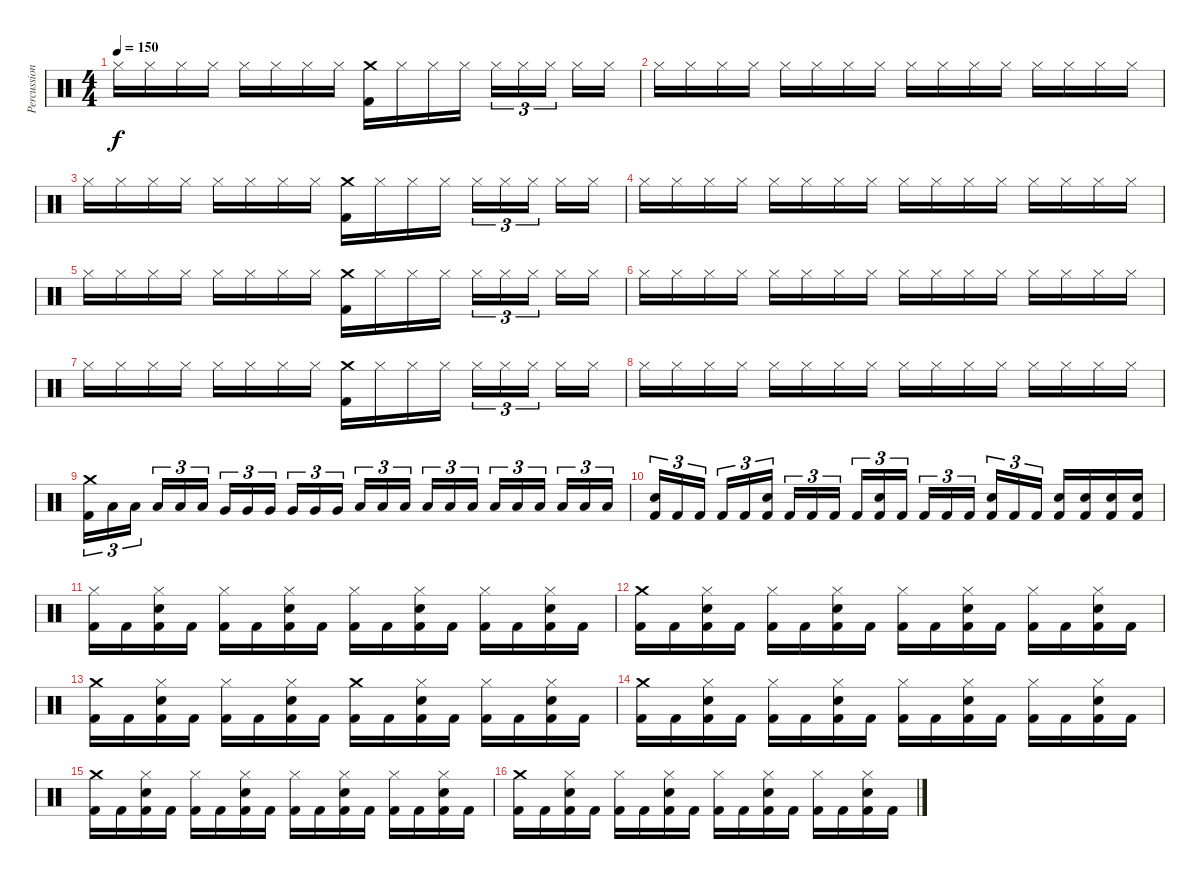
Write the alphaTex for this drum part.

\track ("Percussioni" "Percussion") {instrument percussion}
\staff {score}
\articulation defaults
\ts (4 4)
\tempo 150
\clef neutral
\ks c "Hi-Hat (closed)".16{dy f} "Hi-Hat (closed)".16 "Hi-Hat (closed)".16 "Hi-Hat (closed)".16 "Hi-Hat (closed)".16 "Hi-Hat (closed)".16 "Hi-Hat (closed)".16 "Hi-Hat (closed)".16
("Crash medium (hit)" "Kick (hit) 2").16 "Hi-Hat (closed)".16 "Hi-Hat (closed)".16 "Hi-Hat (closed)".16 "Hi-Hat (closed)".16{tu (3 2)} "Hi-Hat (closed)".16{tu (3 2)} "Hi-Hat (closed)".16{tu (3 2) beam splitsecondary} "Hi-Hat (closed)".16 "Hi-Hat (closed)".16 |
"Hi-Hat (closed)".16 "Hi-Hat (closed)".16 "Hi-Hat (closed)".16 "Hi-Hat (closed)".16 "Hi-Hat (closed)".16 "Hi-Hat (closed)".16 "Hi-Hat (closed)".16 "Hi-Hat (closed)".16 "Hi-Hat (closed)".16 "Hi-Hat (closed)".16 "Hi-Hat (closed)".16 "Hi-Hat (closed)".16 "Hi-Hat (closed)".16 "Hi-Hat (closed)".16 "Hi-Hat (closed)".16 "Hi-Hat (closed)".16 |
"Hi-Hat (closed)".16 "Hi-Hat (closed)".16 "Hi-Hat (closed)".16 "Hi-Hat (closed)".16 "Hi-Hat (closed)".16 "Hi-Hat (closed)".16 "Hi-Hat (closed)".16 "Hi-Hat (closed)".16 ("Crash medium (hit)" "Kick (hit) 2").16 "Hi-Hat (closed)".16 "Hi-Hat (closed)".16 "Hi-Hat (closed)".16 "Hi-Hat (closed)".16{tu (3 2)} "Hi-Hat (closed)".16{tu (3 2)} "Hi-Hat (closed)".16{tu (3 2) beam splitsecondary} "Hi-Hat (closed)".16 "Hi-Hat (closed)".16 |
"Hi-Hat (closed)".16 "Hi-Hat (closed)".16 "Hi-Hat (closed)".16 "Hi-Hat (closed)".16 "Hi-Hat (closed)".16 "Hi-Hat (closed)".16 "Hi-Hat (closed)".16 "Hi-Hat (closed)".16 "Hi-Hat (closed)".16 "Hi-Hat (closed)".16 "Hi-Hat (closed)".16 "Hi-Hat (closed)".16 "Hi-Hat (closed)".16 "Hi-Hat (closed)".16 "Hi-Hat (closed)".16 "Hi-Hat (closed)".16 |
"Hi-Hat (closed)".16 "Hi-Hat (closed)".16 "Hi-Hat (closed)".16 "Hi-Hat (closed)".16 "Hi-Hat (closed)".16 "Hi-Hat (closed)".16 "Hi-Hat (closed)".16 "Hi-Hat (closed)".16 ("Crash medium (hit)" "Kick (hit) 2").16 "Hi-Hat (closed)".16 "Hi-Hat (closed)".16 "Hi-Hat (closed)".16 "Hi-Hat (closed)".16{tu (3 2)} "Hi-Hat (closed)".16{tu (3 2)} "Hi-Hat (closed)".16{tu (3 2) beam splitsecondary} "Hi-Hat (closed)".16 "Hi-Hat (closed)".16 |
"Hi-Hat (closed)".16 "Hi-Hat (closed)".16 "Hi-Hat (closed)".16 "Hi-Hat (closed)".16 "Hi-Hat (closed)".16 "Hi-Hat (closed)".16 "Hi-Hat (closed)".16 "Hi-Hat (closed)".16 "Hi-Hat (closed)".16 "Hi-Hat (closed)".16 "Hi-Hat (closed)".16 "Hi-Hat (closed)".16 "Hi-Hat (closed)".16 "Hi-Hat (closed)".16 "Hi-Hat (closed)".16 "Hi-Hat (closed)".16 |
"Hi-Hat (closed)".16 "Hi-Hat (closed)".16 "Hi-Hat (closed)".16 "Hi-Hat (closed)".16 "Hi-Hat (closed)".16 "Hi-Hat (closed)".16 "Hi-Hat (closed)".16 "Hi-Hat (closed)".16 ("Crash medium (hit)" "Kick (hit) 2").16 "Hi-Hat (closed)".16 "Hi-Hat (closed)".16 "Hi-Hat (closed)".16 "Hi-Hat (closed)".16{tu (3 2)} "Hi-Hat (closed)".16{tu (3 2)} "Hi-Hat (closed)".16{tu (3 2) beam splitsecondary} "Hi-Hat (closed)".16 "Hi-Hat (closed)".16 |
"Hi-Hat (closed)".16 "Hi-Hat (closed)".16 "Hi-Hat (closed)".16 "Hi-Hat (closed)".16 "Hi-Hat (closed)".16 "Hi-Hat (closed)".16 "Hi-Hat (closed)".16 "Hi-Hat (closed)".16 "Hi-Hat (closed)".16 "Hi-Hat (closed)".16 "Hi-Hat (closed)".16 "Hi-Hat (closed)".16 "Hi-Hat (closed)".16 "Hi-Hat (closed)".16 "Hi-Hat (closed)".16 "Hi-Hat (closed)".16 |
("Crash medium (hit)" "Kick (hit) 2").16{tu (3 2)} "Low Tom (hit)".16{tu (3 2)} "Low Tom (hit)".16{tu (3 2) beam splitsecondary} "Low Tom (hit)".16{tu (3 2)} "Low Tom (hit)".16{tu (3 2)} "Low Tom (hit)".16{tu (3 2)} "Very Low Tom (hit)".16{tu (3 2)} "Very Low Tom (hit)".16{tu (3 2)} "Very Low Tom (hit)".16{tu (3 2) beam splitsecondary} "Very Low Tom (hit)".16{tu (3 2)} "Very Low Tom (hit)".16{tu (3 2)} "Very Low Tom (hit)".16{tu (3 2)} "Low Floor Tom (hit)".16{tu (3 2)} "Low Floor Tom (hit)".16{tu (3 2)} "Low Floor Tom (hit)".16{tu (3 2) beam splitsecondary} "Low Floor Tom (hit)".16{tu (3 2)} "Low Floor Tom (hit)".16{tu (3 2)} "Low Floor Tom (hit)".16{tu (3 2)} "Low Floor Tom (hit)".16{tu (3 2)} "Low Floor Tom (hit)".16{tu (3 2)} "Low Floor Tom (hit)".16{tu (3 2) beam splitsecondary} "Low Floor Tom (hit)".16{tu (3 2)} "Low Floor Tom (hit)".16{tu (3 2)} "Low Floor Tom (hit)".16{tu (3 2)} |
("Electric Snare (hit)" "Kick (hit) 2").16{tu (3 2)} "Kick (hit) 2".16{tu (3 2)} "Kick (hit) 2".16{tu (3 2) beam splitsecondary} "Kick (hit) 2".16{tu (3 2)} "Kick (hit) 2".16{tu (3 2)} ("Electric Snare (hit)" "Kick (hit) 2").16{tu (3 2)} "Kick (hit) 2".16{tu (3 2)} "Kick (hit) 2".16{tu (3 2)} "Kick (hit) 2".16{tu (3 2) beam splitsecondary} "Kick (hit) 2".16{tu (3 2)} ("Electric Snare (hit)" "Kick (hit) 2").16{tu (3 2)} "Kick (hit) 2".16{tu (3 2)} "Kick (hit) 2".16{tu (3 2)} "Kick (hit) 2".16{tu (3 2)} "Kick (hit) 2".16{tu (3 2) beam splitsecondary} ("Electric Snare (hit)" "Kick (hit) 2").16{tu (3 2)} "Kick (hit) 2".16{tu (3 2)} "Kick (hit) 2".16{tu (3 2)} ("Electric Snare (hit)" "Kick (hit) 2").16 ("Electric Snare (hit)" "Kick (hit) 2").16 ("Electric Snare (hit)" "Kick (hit) 2").16 ("Electric Snare (hit)" "Kick (hit) 2").16 |
("Hi-Hat (closed)" "Kick (hit) 2").16 "Kick (hit) 2".16 ("Hi-Hat (closed)" "Electric Snare (hit)" "Kick (hit) 2").16 "Kick (hit) 2".16 ("Hi-Hat (closed)" "Kick (hit) 2").16 "Kick (hit) 2".16 ("Hi-Hat (closed)" "Electric Snare (hit)" "Kick (hit) 2").16 "Kick (hit) 2".16 ("Hi-Hat (closed)" "Kick (hit) 2").16 "Kick (hit) 2".16 ("Hi-Hat (closed)" "Electric Snare (hit)" "Kick (hit) 2").16 "Kick (hit) 2".16 ("Hi-Hat (closed)" "Kick (hit) 2").16 "Kick (hit) 2".16 ("Hi-Hat (closed)" "Electric Snare (hit)" "Kick (hit) 2").16 "Kick (hit) 2".16 |
("Crash medium (hit)" "Kick (hit) 2").16 "Kick (hit) 2".16 ("Hi-Hat (closed)" "Electric Snare (hit)" "Kick (hit) 2").16 "Kick (hit) 2".16 ("Hi-Hat (closed)" "Kick (hit) 2").16 "Kick (hit) 2".16 ("Hi-Hat (closed)" "Electric Snare (hit)" "Kick (hit) 2").16 "Kick (hit) 2".16 ("Hi-Hat (closed)" "Kick (hit) 2").16 "Kick (hit) 2".16 ("Hi-Hat (closed)" "Electric Snare (hit)" "Kick (hit) 2").16 "Kick (hit) 2".16 ("Hi-Hat (closed)" "Kick (hit) 2").16 "Kick (hit) 2".16 ("Hi-Hat (closed)" "Electric Snare (hit)" "Kick (hit) 2").16 "Kick (hit) 2".16 |
("Crash medium (hit)" "Kick (hit) 2").16 "Kick (hit) 2".16 ("Hi-Hat (closed)" "Electric Snare (hit)" "Kick (hit) 2").16 "Kick (hit) 2".16 ("Hi-Hat (closed)" "Kick (hit) 2").16 "Kick (hit) 2".16 ("Hi-Hat (closed)" "Electric Snare (hit)" "Kick (hit) 2").16 "Kick (hit) 2".16 ("Crash medium (hit)" "Kick (hit) 2").16 "Kick (hit) 2".16 ("Hi-Hat (closed)" "Electric Snare (hit)" "Kick (hit) 2").16 "Kick (hit) 2".16 ("Hi-Hat (closed)" "Kick (hit) 2").16 "Kick (hit) 2".16 ("Hi-Hat (closed)" "Electric Snare (hit)" "Kick (hit) 2").16 "Kick (hit) 2".16 |
("Crash medium (hit)" "Kick (hit) 2").16 "Kick (hit) 2".16 ("Hi-Hat (closed)" "Electric Snare (hit)" "Kick (hit) 2").16 "Kick (hit) 2".16 ("Hi-Hat (closed)" "Kick (hit) 2").16 "Kick (hit) 2".16 ("Hi-Hat (closed)" "Electric Snare (hit)" "Kick (hit) 2").16 "Kick (hit) 2".16 ("Hi-Hat (closed)" "Kick (hit) 2").16 "Kick (hit) 2".16 ("Hi-Hat (closed)" "Electric Snare (hit)" "Kick (hit) 2").16 "Kick (hit) 2".16 ("Hi-Hat (closed)" "Kick (hit) 2").16 "Kick (hit) 2".16 ("Hi-Hat (closed)" "Electric Snare (hit)" "Kick (hit) 2").16 "Kick (hit) 2".16 |
("Crash medium (hit)" "Kick (hit) 2").16 "Kick (hit) 2".16 ("Hi-Hat (closed)" "Electric Snare (hit)" "Kick (hit) 2").16 "Kick (hit) 2".16 ("Hi-Hat (closed)" "Kick (hit) 2").16 "Kick (hit) 2".16 ("Hi-Hat (closed)" "Electric Snare (hit)" "Kick (hit) 2").16 "Kick (hit) 2".16 ("Hi-Hat (closed)" "Kick (hit) 2").16 "Kick (hit) 2".16 ("Hi-Hat (closed)" "Electric Snare (hit)" "Kick (hit) 2").16 "Kick (hit) 2".16 ("Hi-Hat (closed)" "Kick (hit) 2").16 "Kick (hit) 2".16 ("Hi-Hat (closed)" "Electric Snare (hit)" "Kick (hit) 2").16 "Kick (hit) 2".16 |
("Crash medium (hit)" "Kick (hit) 2").16 "Kick (hit) 2".16 ("Hi-Hat (closed)" "Electric Snare (hit)" "Kick (hit) 2").16 "Kick (hit) 2".16 ("Hi-Hat (closed)" "Kick (hit) 2").16 "Kick (hit) 2".16 ("Hi-Hat (closed)" "Electric Snare (hit)" "Kick (hit) 2").16 "Kick (hit) 2".16 ("Hi-Hat (closed)" "Kick (hit) 2").16 "Kick (hit) 2".16 ("Hi-Hat (closed)" "Electric Snare (hit)" "Kick (hit) 2").16 "Kick (hit) 2".16 ("Hi-Hat (closed)" "Kick (hit) 2").16 "Kick (hit) 2".16 ("Hi-Hat (closed)" "Electric Snare (hit)" "Kick (hit) 2").16 "Kick (hit) 2".16
